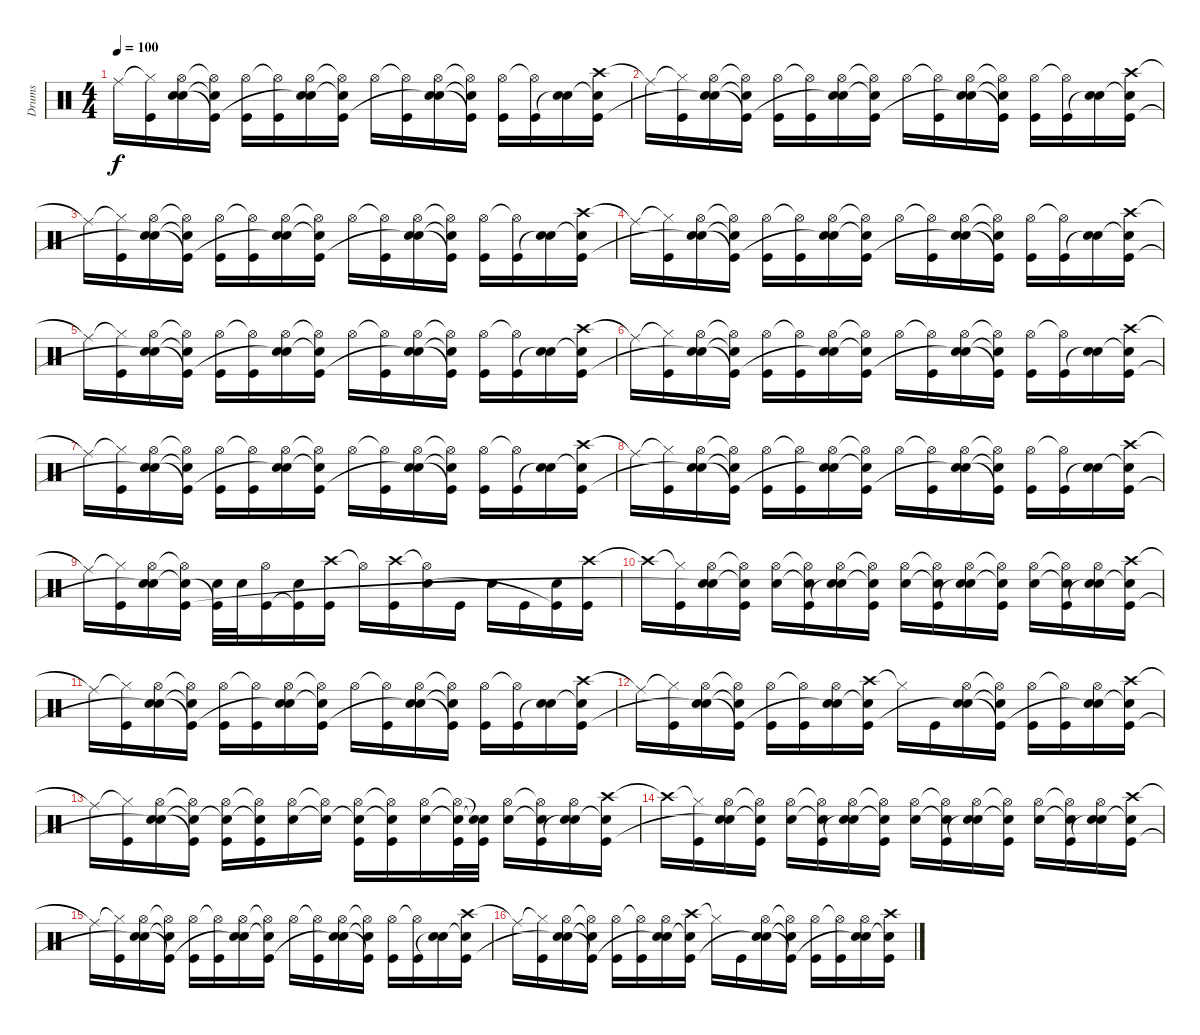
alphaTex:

\track ("Drums" "Drums") {instrument percussion}
\staff {score}
\articulation defaults
\ts (4 4)
\tempo 100
\clef neutral
\ks c "Ride (middle)"{t}.16{dy f}
("Hi-Hat (closed)"{t} "Kick (hit)").16 ("Hi-Hat (open)" "Snare (hit) 2" "Snare (hit)"{t}).16 ("Hi-Hat (open)"{t} "Snare (hit) 2"{t} "Kick (hit)"{t}).16 ("Hi-Hat (open)" "Kick (hit)").16 ("Hi-Hat (open)"{t} "Kick (hit)").16 ("Hi-Hat (open)" "Snare (hit) 2" "Snare (hit)"{t}).16 ("Hi-Hat (open)"{t} "Snare (hit) 2"{t} "Kick (hit)").16 "Hi-Hat (open)".16 ("Hi-Hat (open)"{t} "Kick (hit)").16 ("Hi-Hat (open)" "Snare (hit) 2" "Snare (hit)"{t}).16 ("Hi-Hat (open)"{t} "Snare (hit) 2"{t} "Kick (hit)"{t}).16 ("Hi-Hat (open)" "Kick (hit)").16 ("Hi-Hat (open)"{t} "Kick (hit)").16 ("Snare (hit) 2" "Snare (hit)"{t}).16 ("Crash high (hit)" "Snare (hit) 2"{t} "Kick (hit)").16 |
"Ride (middle)"{t}.16 ("Hi-Hat (closed)"{t} "Kick (hit)").16 ("Hi-Hat (open)" "Snare (hit) 2" "Snare (hit)"{t}).16 ("Hi-Hat (open)"{t} "Snare (hit) 2"{t} "Kick (hit)"{t}).16 ("Hi-Hat (open)" "Kick (hit)").16 ("Hi-Hat (open)"{t} "Kick (hit)").16 ("Hi-Hat (open)" "Snare (hit) 2" "Snare (hit)"{t}).16 ("Hi-Hat (open)"{t} "Snare (hit) 2"{t} "Kick (hit)").16 "Hi-Hat (open)".16 ("Hi-Hat (open)"{t} "Kick (hit)").16 ("Hi-Hat (open)" "Snare (hit) 2" "Snare (hit)"{t}).16 ("Hi-Hat (open)"{t} "Snare (hit) 2"{t} "Kick (hit)"{t}).16 ("Hi-Hat (open)" "Kick (hit)").16 ("Hi-Hat (open)"{t} "Kick (hit)").16 ("Snare (hit) 2" "Snare (hit)"{t}).16 ("Crash high (hit)" "Snare (hit) 2"{t} "Kick (hit)").16 |
"Ride (middle)"{t}.16 ("Hi-Hat (closed)"{t} "Kick (hit)").16 ("Hi-Hat (open)" "Snare (hit) 2" "Snare (hit)"{t}).16 ("Hi-Hat (open)"{t} "Snare (hit) 2"{t} "Kick (hit)"{t}).16 ("Hi-Hat (open)" "Kick (hit)").16 ("Hi-Hat (open)"{t} "Kick (hit)").16 ("Hi-Hat (open)" "Snare (hit) 2" "Snare (hit)"{t}).16 ("Hi-Hat (open)"{t} "Snare (hit) 2"{t} "Kick (hit)").16 "Hi-Hat (open)".16 ("Hi-Hat (open)"{t} "Kick (hit)").16 ("Hi-Hat (open)" "Snare (hit) 2" "Snare (hit)"{t}).16 ("Hi-Hat (open)"{t} "Snare (hit) 2"{t} "Kick (hit)"{t}).16 ("Hi-Hat (open)" "Kick (hit)").16 ("Hi-Hat (open)"{t} "Kick (hit)").16 ("Snare (hit) 2" "Snare (hit)"{t}).16 ("Crash high (hit)" "Snare (hit) 2"{t} "Kick (hit)").16 |
"Ride (middle)"{t}.16 ("Hi-Hat (closed)"{t} "Kick (hit)").16 ("Hi-Hat (open)" "Snare (hit) 2" "Snare (hit)"{t}).16 ("Hi-Hat (open)"{t} "Snare (hit) 2"{t} "Kick (hit)"{t}).16 ("Hi-Hat (open)" "Kick (hit)").16 ("Hi-Hat (open)"{t} "Kick (hit)").16 ("Hi-Hat (open)" "Snare (hit) 2" "Snare (hit)"{t}).16 ("Hi-Hat (open)"{t} "Snare (hit) 2"{t} "Kick (hit)").16 "Hi-Hat (open)".16 ("Hi-Hat (open)"{t} "Kick (hit)").16 ("Hi-Hat (open)" "Snare (hit) 2" "Snare (hit)"{t}).16 ("Hi-Hat (open)"{t} "Snare (hit) 2"{t} "Kick (hit)"{t}).16 ("Hi-Hat (open)" "Kick (hit)").16 ("Hi-Hat (open)"{t} "Kick (hit)").16 ("Snare (hit) 2" "Snare (hit)"{t}).16 ("Crash high (hit)" "Snare (hit) 2"{t} "Kick (hit)").16 |
"Ride (middle)"{t}.16 ("Hi-Hat (closed)"{t} "Kick (hit)").16 ("Hi-Hat (open)" "Snare (hit) 2" "Snare (hit)"{t}).16 ("Hi-Hat (open)"{t} "Snare (hit) 2"{t} "Kick (hit)"{t}).16 ("Hi-Hat (open)" "Kick (hit)").16 ("Hi-Hat (open)"{t} "Kick (hit)").16 ("Hi-Hat (open)" "Snare (hit) 2" "Snare (hit)"{t}).16 ("Hi-Hat (open)"{t} "Snare (hit) 2"{t} "Kick (hit)").16 "Hi-Hat (open)".16 ("Hi-Hat (open)"{t} "Kick (hit)").16 ("Hi-Hat (open)" "Snare (hit) 2" "Snare (hit)"{t}).16 ("Hi-Hat (open)"{t} "Snare (hit) 2"{t} "Kick (hit)"{t}).16 ("Hi-Hat (open)" "Kick (hit)").16 ("Hi-Hat (open)"{t} "Kick (hit)").16 ("Snare (hit) 2" "Snare (hit)"{t}).16 ("Crash high (hit)" "Snare (hit) 2"{t} "Kick (hit)").16 |
"Ride (middle)"{t}.16 ("Hi-Hat (closed)"{t} "Kick (hit)").16 ("Hi-Hat (open)" "Snare (hit) 2" "Snare (hit)"{t}).16 ("Hi-Hat (open)"{t} "Snare (hit) 2"{t} "Kick (hit)"{t}).16 ("Hi-Hat (open)" "Kick (hit)").16 ("Hi-Hat (open)"{t} "Kick (hit)").16 ("Hi-Hat (open)" "Snare (hit) 2" "Snare (hit)"{t}).16 ("Hi-Hat (open)"{t} "Snare (hit) 2"{t} "Kick (hit)").16 "Hi-Hat (open)".16 ("Hi-Hat (open)"{t} "Kick (hit)").16 ("Hi-Hat (open)" "Snare (hit) 2" "Snare (hit)"{t}).16 ("Hi-Hat (open)"{t} "Snare (hit) 2"{t} "Kick (hit)"{t}).16 ("Hi-Hat (open)" "Kick (hit)").16 ("Hi-Hat (open)"{t} "Kick (hit)").16 ("Snare (hit) 2" "Snare (hit)"{t}).16 ("Crash high (hit)" "Snare (hit) 2"{t} "Kick (hit)").16 |
"Ride (middle)"{t}.16 ("Hi-Hat (closed)"{t} "Kick (hit)").16 ("Hi-Hat (open)" "Snare (hit) 2" "Snare (hit)"{t}).16 ("Hi-Hat (open)"{t} "Snare (hit) 2"{t} "Kick (hit)"{t}).16 ("Hi-Hat (open)" "Kick (hit)").16 ("Hi-Hat (open)"{t} "Kick (hit)").16 ("Hi-Hat (open)" "Snare (hit) 2" "Snare (hit)"{t}).16 ("Hi-Hat (open)"{t} "Snare (hit) 2"{t} "Kick (hit)").16 "Hi-Hat (open)".16 ("Hi-Hat (open)"{t} "Kick (hit)").16 ("Hi-Hat (open)" "Snare (hit) 2" "Snare (hit)"{t}).16 ("Hi-Hat (open)"{t} "Snare (hit) 2"{t} "Kick (hit)"{t}).16 ("Hi-Hat (open)" "Kick (hit)").16 ("Hi-Hat (open)"{t} "Kick (hit)").16 ("Snare (hit) 2" "Snare (hit)"{t}).16 ("Crash high (hit)" "Snare (hit) 2"{t} "Kick (hit)").16 |
"Ride (middle)"{t}.16 ("Hi-Hat (closed)"{t} "Kick (hit)").16 ("Hi-Hat (open)" "Snare (hit) 2" "Snare (hit)"{t}).16 ("Hi-Hat (open)"{t} "Snare (hit) 2"{t} "Kick (hit)"{t}).16 ("Hi-Hat (open)" "Kick (hit)").16 ("Hi-Hat (open)"{t} "Kick (hit)").16 ("Hi-Hat (open)" "Snare (hit) 2" "Snare (hit)"{t}).16 ("Hi-Hat (open)"{t} "Snare (hit) 2"{t} "Kick (hit)").16 "Hi-Hat (open)".16 ("Hi-Hat (open)"{t} "Kick (hit)").16 ("Hi-Hat (open)" "Snare (hit) 2" "Snare (hit)"{t}).16 ("Hi-Hat (open)"{t} "Snare (hit) 2"{t} "Kick (hit)"{t}).16 ("Hi-Hat (open)" "Kick (hit)").16 ("Hi-Hat (open)"{t} "Kick (hit)").16 ("Snare (hit) 2" "Snare (hit)"{t}).16 ("Crash high (hit)" "Snare (hit) 2"{t} "Kick (hit)").16 |
"Ride (middle)"{t}.16 ("Hi-Hat (closed)"{t} "Kick (hit)").16 ("Hi-Hat (open)" "Snare (hit) 2" "Snare (hit)"{t}).16 ("Hi-Hat (open)"{t} "Snare (hit) 2"{t} "Kick (hit)").16 ("Snare (hit) 2" "Kick (hit)"{t}).32 "Snare (hit) 2".32 ("Hi-Hat (open)" "Kick (hit)").16 ("Snare (hit) 2" "Kick (hit)"{t}).16 ("Crash high (hit)" "Kick (hit)").16 "Hi-Hat (open)"{t}.16 ("Crash high (hit)" "Kick (hit)").16 ("Hi-Hat (open)"{t} "Snare (hit) 2").16 "Kick (hit)".16 "Snare (hit) 2".16 "Kick (hit)".16 ("Snare (hit) 2" "Kick (hit)"{t}).16 ("Crash high (hit)" "Kick (hit)").16 |
"Crash high (hit)"{t}.16 ("Hi-Hat (closed)"{t} "Kick (hit)").16 ("Hi-Hat (open)" "Snare (hit) 2" "Snare (hit)"{t}).16 ("Hi-Hat (open)"{t} "Snare (hit) 2"{t} "Kick (hit)").16 ("Hi-Hat (open)" "Snare (hit) 2").16 ("Hi-Hat (open)"{t} "Snare (hit) 2"{t} "Kick (hit)").16 ("Hi-Hat (open)" "Snare (hit) 2" "Snare (hit)"{t}).16 ("Hi-Hat (open)"{t} "Snare (hit) 2"{t} "Kick (hit)").16 ("Hi-Hat (open)" "Snare (hit) 2").16 ("Hi-Hat (open)"{t} "Snare (hit) 2"{t} "Kick (hit)").16 ("Hi-Hat (open)" "Snare (hit) 2" "Snare (hit)"{t}).16 ("Hi-Hat (open)"{t} "Snare (hit) 2"{t} "Kick (hit)").16 ("Hi-Hat (open)" "Snare (hit) 2").16 ("Hi-Hat (open)"{t} "Snare (hit) 2"{t} "Kick (hit)").16 ("Hi-Hat (open)" "Snare (hit) 2" "Snare (hit)"{t}).16 ("Crash high (hit)" "Snare (hit) 2"{t} "Kick (hit)").16 |
"Ride (middle)"{t}.16 ("Hi-Hat (closed)"{t} "Kick (hit)").16 ("Hi-Hat (open)" "Snare (hit) 2" "Snare (hit)"{t}).16 ("Hi-Hat (open)"{t} "Snare (hit) 2"{t} "Kick (hit)"{t}).16 ("Hi-Hat (open)" "Kick (hit)").16 ("Hi-Hat (open)"{t} "Kick (hit)").16 ("Hi-Hat (open)" "Snare (hit) 2" "Snare (hit)"{t}).16 ("Hi-Hat (open)"{t} "Snare (hit) 2"{t} "Kick (hit)").16 "Hi-Hat (open)".16 ("Hi-Hat (open)"{t} "Kick (hit)").16 ("Hi-Hat (open)" "Snare (hit) 2" "Snare (hit)"{t}).16 ("Hi-Hat (open)"{t} "Snare (hit) 2"{t} "Kick (hit)"{t}).16 ("Hi-Hat (open)" "Kick (hit)").16 ("Hi-Hat (open)"{t} "Kick (hit)").16 ("Snare (hit) 2" "Snare (hit)"{t}).16 ("Crash high (hit)" "Snare (hit) 2"{t} "Kick (hit)").16 |
"Ride (middle)"{t}.16 ("Hi-Hat (closed)"{t} "Kick (hit)").16 ("Hi-Hat (open)" "Snare (hit) 2" "Snare (hit)"{t}).16 ("Hi-Hat (open)"{t} "Snare (hit) 2"{t} "Kick (hit)"{t}).16 ("Hi-Hat (open)" "Kick (hit)").16 ("Hi-Hat (open)"{t} "Kick (hit)").16 ("Hi-Hat (open)" "Snare (hit) 2" "Snare (hit)"{t}).16 ("Crash high (hit)" "Snare (hit) 2"{t} "Kick (hit)").16 "Hi-Hat (closed)"{t}.16 "Kick (hit)".16 ("Hi-Hat (open)" "Snare (hit) 2" "Snare (hit)"{t}).16 ("Hi-Hat (open)"{t} "Snare (hit) 2"{t} "Kick (hit)"{t}).16 ("Hi-Hat (open)" "Kick (hit)").16 ("Hi-Hat (open)"{t} "Kick (hit)").16 ("Hi-Hat (open)" "Snare (hit) 2" "Snare (hit)"{t}).16 ("Crash high (hit)" "Snare (hit) 2"{t} "Kick (hit)").16 |
"Ride (middle)"{t}.16 ("Hi-Hat (closed)"{t} "Kick (hit)").16 ("Hi-Hat (open)" "Snare (hit) 2" "Snare (hit)"{t}).16 ("Hi-Hat (open)"{t} "Snare (hit) 2"{t} "Kick (hit)"{t}).16 ("Hi-Hat (open)" "Snare (hit) 2"{t} "Kick (hit)").16 ("Hi-Hat (open)"{t} "Snare (hit) 2"{t} "Kick (hit)").16 ("Hi-Hat (open)" "Snare (hit) 2").16 ("Hi-Hat (open)"{t} "Snare (hit) 2"{t}).16 ("Hi-Hat (open)" "Snare (hit) 2"{t} "Kick (hit)").16 ("Hi-Hat (open)"{t} "Snare (hit) 2"{t} "Kick (hit)").16 ("Hi-Hat (open)" "Snare (hit) 2").16 ("Hi-Hat (open)"{t} "Snare (hit) 2"{t} "Kick (hit)").32 ("Snare (hit)"{t} "Snare (hit)"{t} "Kick (hit)").32 ("Hi-Hat (open)" "Snare (hit) 2").16 ("Hi-Hat (open)"{t} "Snare (hit) 2"{t} "Kick (hit)").16 ("Hi-Hat (open)" "Snare (hit) 2" "Snare (hit)"{t}).16 ("Crash high (hit)" "Snare (hit) 2"{t} "Kick (hit)").16 |
"Crash high (hit)"{t}.16 ("Hi-Hat (closed)"{t} "Kick (hit)").16 ("Hi-Hat (open)" "Snare (hit) 2" "Snare (hit)"{t}).16 ("Hi-Hat (open)"{t} "Snare (hit) 2"{t} "Kick (hit)").16 ("Hi-Hat (open)" "Snare (hit) 2").16 ("Hi-Hat (open)"{t} "Snare (hit) 2"{t} "Kick (hit)").16 ("Hi-Hat (open)" "Snare (hit) 2" "Snare (hit)"{t}).16 ("Hi-Hat (open)"{t} "Snare (hit) 2"{t} "Kick (hit)").16 ("Hi-Hat (open)" "Snare (hit) 2").16 ("Hi-Hat (open)"{t} "Snare (hit) 2"{t} "Kick (hit)").16 ("Hi-Hat (open)" "Snare (hit) 2" "Snare (hit)"{t}).16 ("Hi-Hat (open)"{t} "Snare (hit) 2"{t} "Kick (hit)").16 ("Hi-Hat (open)" "Snare (hit) 2").16 ("Hi-Hat (open)"{t} "Snare (hit) 2"{t} "Kick (hit)").16 ("Hi-Hat (open)" "Snare (hit) 2" "Snare (hit)"{t}).16 ("Crash high (hit)" "Snare (hit) 2"{t} "Kick (hit)").16 |
"Ride (middle)"{t}.16 ("Hi-Hat (closed)"{t} "Kick (hit)").16 ("Hi-Hat (open)" "Snare (hit) 2" "Snare (hit)"{t}).16 ("Hi-Hat (open)"{t} "Snare (hit) 2"{t} "Kick (hit)"{t}).16 ("Hi-Hat (open)" "Kick (hit)").16 ("Hi-Hat (open)"{t} "Kick (hit)").16 ("Hi-Hat (open)" "Snare (hit) 2" "Snare (hit)"{t}).16 ("Hi-Hat (open)"{t} "Snare (hit) 2"{t} "Kick (hit)").16 "Hi-Hat (open)".16 ("Hi-Hat (open)"{t} "Kick (hit)").16 ("Hi-Hat (open)" "Snare (hit) 2" "Snare (hit)"{t}).16 ("Hi-Hat (open)"{t} "Snare (hit) 2"{t} "Kick (hit)"{t}).16 ("Hi-Hat (open)" "Kick (hit)").16 ("Hi-Hat (open)"{t} "Kick (hit)").16 ("Snare (hit) 2" "Snare (hit)"{t}).16 ("Crash high (hit)" "Snare (hit) 2"{t} "Kick (hit)").16 |
"Ride (middle)"{t}.16 ("Hi-Hat (closed)"{t} "Kick (hit)").16 ("Hi-Hat (open)" "Snare (hit) 2" "Snare (hit)"{t}).16 ("Hi-Hat (open)"{t} "Snare (hit) 2"{t} "Kick (hit)"{t}).16 ("Hi-Hat (open)" "Kick (hit)").16 ("Hi-Hat (open)"{t} "Kick (hit)").16 ("Hi-Hat (open)" "Snare (hit) 2" "Snare (hit)"{t}).16 ("Crash high (hit)" "Snare (hit) 2"{t} "Kick (hit)").16 "Hi-Hat (closed)"{t}.16 "Kick (hit)".16 ("Hi-Hat (open)" "Snare (hit) 2" "Snare (hit)"{t}).16 ("Hi-Hat (open)"{t} "Snare (hit) 2"{t} "Kick (hit)"{t}).16 ("Hi-Hat (open)" "Kick (hit)").16 ("Hi-Hat (open)"{t} "Kick (hit)").16 ("Hi-Hat (open)" "Snare (hit) 2" "Snare (hit)"{t}).16 ("Crash high (hit)" "Snare (hit) 2"{t} "Kick (hit)").16
